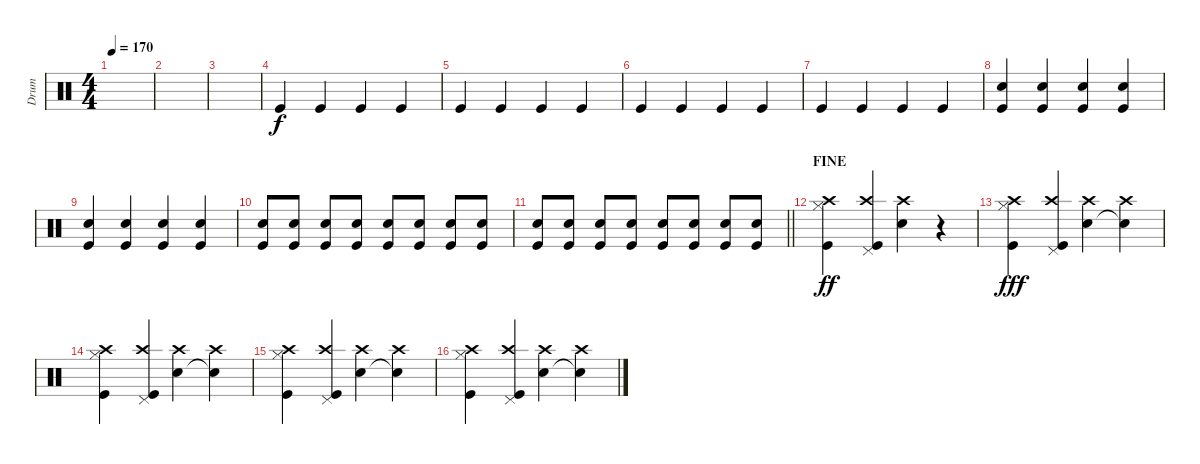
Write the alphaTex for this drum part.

\track ("Drum" "Drum") {instrument percussion}
\staff {score}
\articulation defaults
\ts (4 4)
\tempo 170
\clef neutral
\ks c
|
|
|
"Kick (hit)".4{dy f} "Kick (hit)".4 "Kick (hit)".4 "Kick (hit)".4 |
"Kick (hit)".4 "Kick (hit)".4 "Kick (hit)".4 "Kick (hit)".4 |
"Kick (hit)".4 "Kick (hit)".4 "Kick (hit)".4 "Kick (hit)".4 |
"Kick (hit)".4 "Kick (hit)".4 "Kick (hit)".4 "Kick (hit)".4 |
("Snare (hit) 2" "Kick (hit)").4 ("Snare (hit) 2" "Kick (hit)").4 ("Snare (hit) 2" "Kick (hit)").4 ("Snare (hit) 2" "Kick (hit)").4 |
("Snare (hit) 2" "Kick (hit)").4 ("Snare (hit) 2" "Kick (hit)").4 ("Snare (hit) 2" "Kick (hit)").4 ("Snare (hit) 2" "Kick (hit)").4 |
("Snare (hit) 2" "Kick (hit)").8 ("Snare (hit) 2" "Kick (hit)").8 ("Snare (hit) 2" "Kick (hit)").8 ("Snare (hit) 2" "Kick (hit)").8 ("Snare (hit) 2" "Kick (hit)").8 ("Snare (hit) 2" "Kick (hit)").8 ("Snare (hit) 2" "Kick (hit)").8 ("Snare (hit) 2" "Kick (hit)").8 |
\barLineRight lightlight
("Snare (hit) 2" "Kick (hit)").8 ("Snare (hit) 2" "Kick (hit)").8 ("Snare (hit) 2" "Kick (hit)").8 ("Snare (hit) 2" "Kick (hit)").8 ("Snare (hit) 2" "Kick (hit)").8 ("Snare (hit) 2" "Kick (hit)").8 ("Snare (hit) 2" "Kick (hit)").8 ("Snare (hit) 2" "Kick (hit)").8 |
\section ("" "FINE")
("Crash high (hit)" "Hi-Hat (closed)" "Kick (hit)").4{dy ff} ("Crash high (hit)" "Pedal Hi-Hat (hit)" "Kick (hit)").4 ("Crash high (hit)" "Snare (hit) 2").4 r.4 |
("Crash high (hit)" "Hi-Hat (closed)" "Kick (hit)").4{dy fff} ("Crash high (hit)" "Pedal Hi-Hat (hit)" "Kick (hit)").4 ("Crash high (hit)" "Snare (hit) 2").4 ("Crash high (hit)" "Snare (hit)"{t}).4 |
("Crash high (hit)" "Hi-Hat (closed)" "Kick (hit)").4 ("Crash high (hit)" "Pedal Hi-Hat (hit)" "Kick (hit)").4 ("Crash high (hit)" "Snare (hit) 2").4 ("Crash high (hit)" "Snare (hit)"{t}).4 |
("Crash high (hit)" "Hi-Hat (closed)" "Kick (hit)").4 ("Crash high (hit)" "Pedal Hi-Hat (hit)" "Kick (hit)").4 ("Crash high (hit)" "Snare (hit) 2").4 ("Crash high (hit)" "Snare (hit)"{t}).4 |
("Crash high (hit)" "Hi-Hat (closed)" "Kick (hit)").4 ("Crash high (hit)" "Pedal Hi-Hat (hit)" "Kick (hit)").4 ("Crash high (hit)" "Snare (hit) 2").4 ("Crash high (hit)" "Snare (hit)"{t}).4
